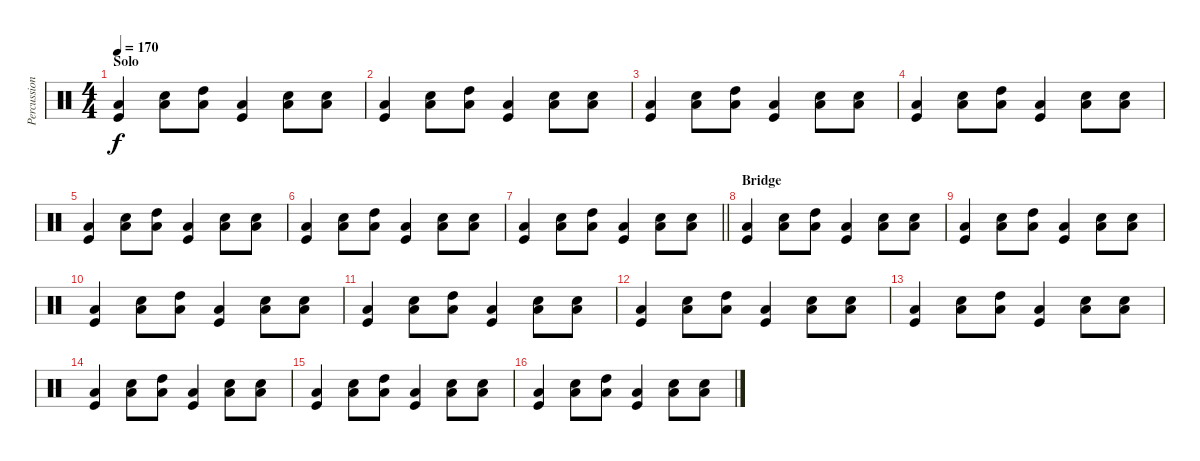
\track ("Percussion" "Percussion") {instrument percussion}
\staff {score}
\articulation defaults
\ts (4 4)
\section ("" "Solo")
\tempo 170
\clef neutral
\ks c
("Kick (hit)" "Low Tom (hit)").4{dy f} ("Low Tom (hit)" "Snare (hit) 2").8 ("Low Tom (hit)" "High Tom (hit)").8 ("Kick (hit)" "Low Tom (hit)").4 ("Low Tom (hit)" "Snare (hit) 2").8 ("Low Tom (hit)" "Snare (hit) 2").8 |
("Kick (hit)" "Low Tom (hit)").4 ("Low Tom (hit)" "Snare (hit) 2").8 ("Low Tom (hit)" "High Tom (hit)").8 ("Kick (hit)" "Low Tom (hit)").4 ("Low Tom (hit)" "Snare (hit) 2").8 ("Low Tom (hit)" "Snare (hit) 2").8 |
("Kick (hit)" "Low Tom (hit)").4 ("Low Tom (hit)" "Snare (hit) 2").8 ("Low Tom (hit)" "High Tom (hit)").8 ("Kick (hit)" "Low Tom (hit)").4 ("Low Tom (hit)" "Snare (hit) 2").8 ("Low Tom (hit)" "Snare (hit) 2").8 |
("Kick (hit)" "Low Tom (hit)").4 ("Low Tom (hit)" "Snare (hit) 2").8 ("Low Tom (hit)" "High Tom (hit)").8 ("Kick (hit)" "Low Tom (hit)").4 ("Low Tom (hit)" "Snare (hit) 2").8 ("Low Tom (hit)" "Snare (hit) 2").8 |
("Kick (hit)" "Low Tom (hit)").4 ("Low Tom (hit)" "Snare (hit) 2").8 ("Low Tom (hit)" "High Tom (hit)").8 ("Kick (hit)" "Low Tom (hit)").4 ("Low Tom (hit)" "Snare (hit) 2").8 ("Low Tom (hit)" "Snare (hit) 2").8 |
("Kick (hit)" "Low Tom (hit)").4 ("Low Tom (hit)" "Snare (hit) 2").8 ("Low Tom (hit)" "High Tom (hit)").8 ("Kick (hit)" "Low Tom (hit)").4 ("Low Tom (hit)" "Snare (hit) 2").8 ("Low Tom (hit)" "Snare (hit) 2").8 |
\barLineRight lightlight
("Kick (hit)" "Low Tom (hit)").4 ("Low Tom (hit)" "Snare (hit) 2").8 ("Low Tom (hit)" "High Tom (hit)").8 ("Kick (hit)" "Low Tom (hit)").4 ("Low Tom (hit)" "Snare (hit) 2").8 ("Low Tom (hit)" "Snare (hit) 2").8 |
\section ("" "Bridge")
("Kick (hit)" "Low Tom (hit)").4 ("Low Tom (hit)" "Snare (hit) 2").8 ("Low Tom (hit)" "High Tom (hit)").8 ("Kick (hit)" "Low Tom (hit)").4 ("Low Tom (hit)" "Snare (hit) 2").8 ("Low Tom (hit)" "Snare (hit) 2").8 |
("Kick (hit)" "Low Tom (hit)").4 ("Low Tom (hit)" "Snare (hit) 2").8 ("Low Tom (hit)" "High Tom (hit)").8 ("Kick (hit)" "Low Tom (hit)").4 ("Low Tom (hit)" "Snare (hit) 2").8 ("Low Tom (hit)" "Snare (hit) 2").8 |
("Kick (hit)" "Low Tom (hit)").4 ("Low Tom (hit)" "Snare (hit) 2").8 ("Low Tom (hit)" "High Tom (hit)").8 ("Kick (hit)" "Low Tom (hit)").4 ("Low Tom (hit)" "Snare (hit) 2").8 ("Low Tom (hit)" "Snare (hit) 2").8 |
("Kick (hit)" "Low Tom (hit)").4 ("Low Tom (hit)" "Snare (hit) 2").8 ("Low Tom (hit)" "High Tom (hit)").8 ("Kick (hit)" "Low Tom (hit)").4 ("Low Tom (hit)" "Snare (hit) 2").8 ("Low Tom (hit)" "Snare (hit) 2").8 |
("Kick (hit)" "Low Tom (hit)").4 ("Low Tom (hit)" "Snare (hit) 2").8 ("Low Tom (hit)" "High Tom (hit)").8 ("Kick (hit)" "Low Tom (hit)").4 ("Low Tom (hit)" "Snare (hit) 2").8 ("Low Tom (hit)" "Snare (hit) 2").8 |
("Kick (hit)" "Low Tom (hit)").4 ("Low Tom (hit)" "Snare (hit) 2").8 ("Low Tom (hit)" "High Tom (hit)").8 ("Kick (hit)" "Low Tom (hit)").4 ("Low Tom (hit)" "Snare (hit) 2").8 ("Low Tom (hit)" "Snare (hit) 2").8 |
("Kick (hit)" "Low Tom (hit)").4 ("Low Tom (hit)" "Snare (hit) 2").8 ("Low Tom (hit)" "High Tom (hit)").8 ("Kick (hit)" "Low Tom (hit)").4 ("Low Tom (hit)" "Snare (hit) 2").8 ("Low Tom (hit)" "Snare (hit) 2").8 |
("Kick (hit)" "Low Tom (hit)").4 ("Low Tom (hit)" "Snare (hit) 2").8 ("Low Tom (hit)" "High Tom (hit)").8 ("Kick (hit)" "Low Tom (hit)").4 ("Low Tom (hit)" "Snare (hit) 2").8 ("Low Tom (hit)" "Snare (hit) 2").8 |
("Kick (hit)" "Low Tom (hit)").4 ("Low Tom (hit)" "Snare (hit) 2").8 ("Low Tom (hit)" "High Tom (hit)").8 ("Kick (hit)" "Low Tom (hit)").4 ("Low Tom (hit)" "Snare (hit) 2").8 ("Low Tom (hit)" "Snare (hit) 2").8
